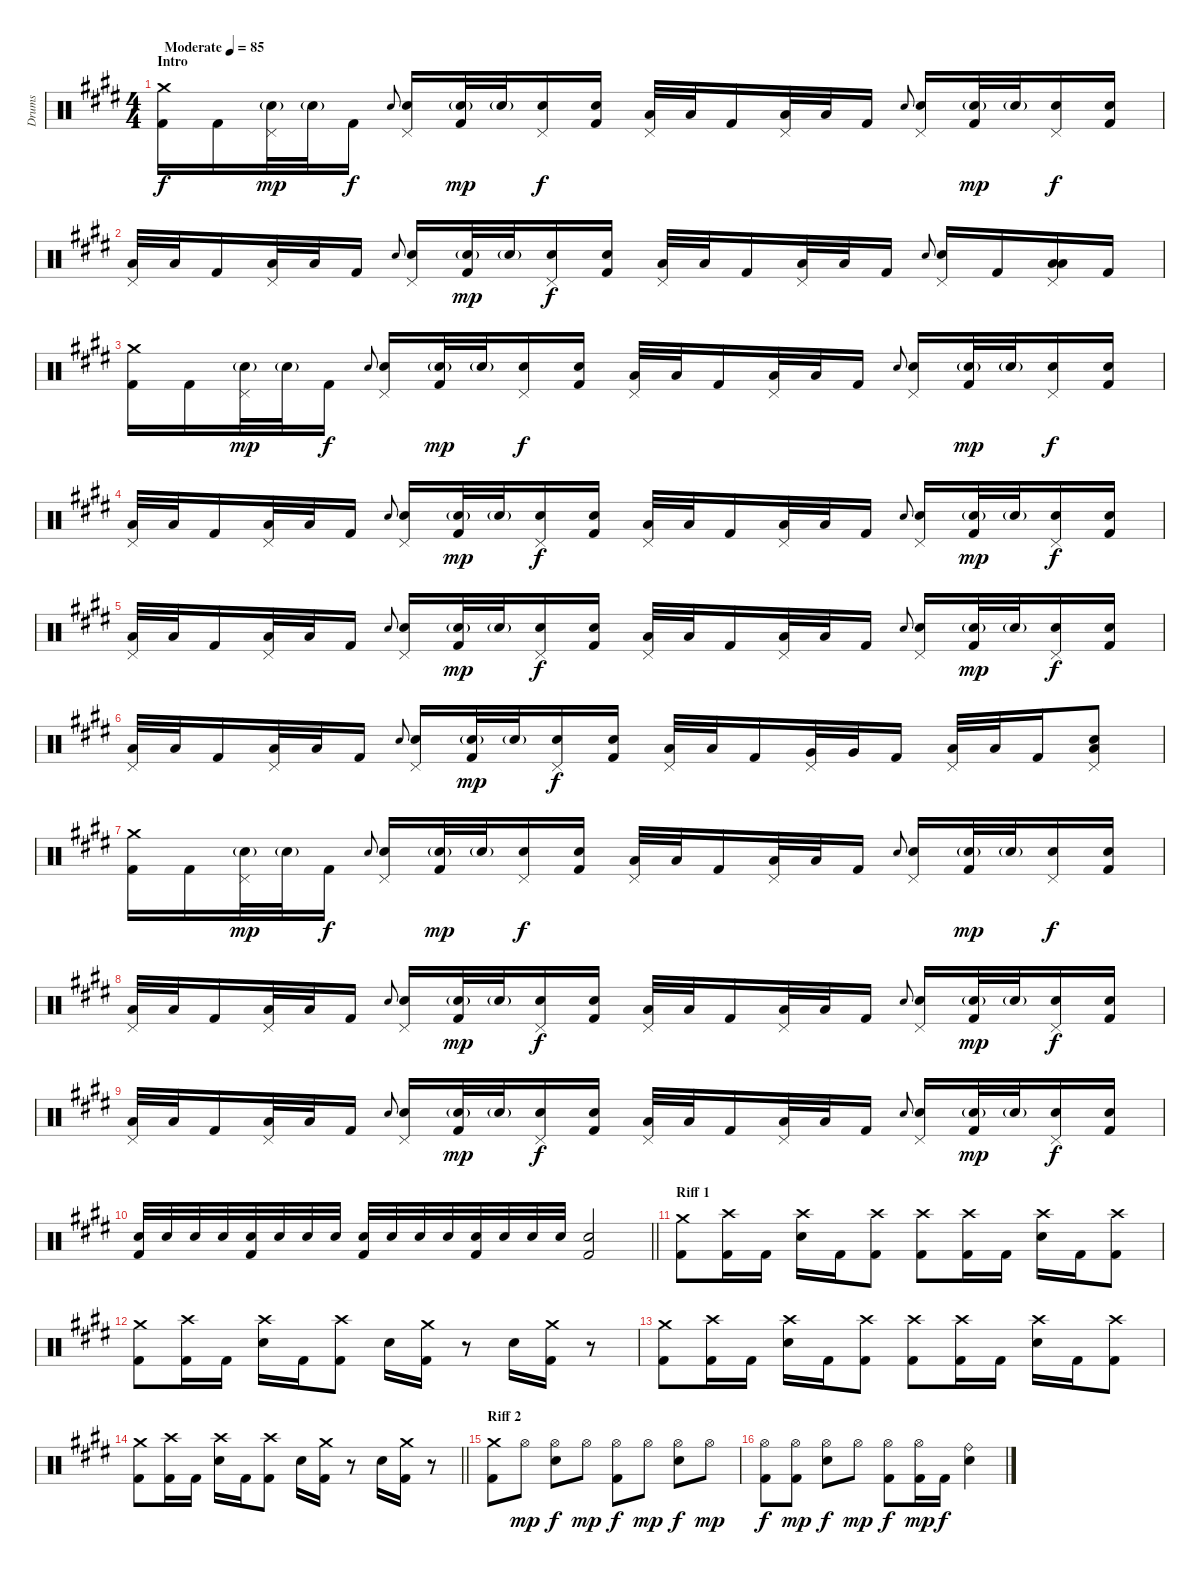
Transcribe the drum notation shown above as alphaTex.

\track ("Drums" "Drums") {instrument percussion}
\staff {score}
\articulation defaults
\ts (4 4)
\section ("" "Intro")
\tempo (85 "Moderate")
\clef neutral
\ks e
("Crash medium (hit)" "Kick (hit) 2").16{dy f} "Kick (hit) 2".16 ("Electric Snare (hit)"{g} "Pedal Hi-Hat (hit)").32{dy mp} "Electric Snare (hit)"{g}.32 "Kick (hit) 2".16{dy f} "Electric Snare (hit)".8{gr onbeat} ("Electric Snare (hit)" "Pedal Hi-Hat (hit)").16 ("Electric Snare (hit)"{g} "Kick (hit) 2").32{dy mp} "Electric Snare (hit)"{g}.32 ("Electric Snare (hit)" "Pedal Hi-Hat (hit)").16{dy f} ("Electric Snare (hit)" "Kick (hit) 2").16 ("Low Tom (hit)" "Pedal Hi-Hat (hit)").32 "Low Tom (hit)".32 "Kick (hit) 2".16 ("Low Floor Tom (hit)" "Pedal Hi-Hat (hit)").32 "Low Floor Tom (hit)".32 "Kick (hit) 2".16 "Electric Snare (hit)".8{gr onbeat} ("Electric Snare (hit)" "Pedal Hi-Hat (hit)").16 ("Electric Snare (hit)"{g} "Kick (hit) 2").32{dy mp} "Electric Snare (hit)"{g}.32 ("Electric Snare (hit)" "Pedal Hi-Hat (hit)").16{dy f} ("Electric Snare (hit)" "Kick (hit) 2").16 |
("Low Tom (hit)" "Pedal Hi-Hat (hit)").32 "Low Tom (hit)".32 "Kick (hit) 2".16 ("Low Floor Tom (hit)" "Pedal Hi-Hat (hit)").32 "Low Floor Tom (hit)".32 "Kick (hit) 2".16 "Electric Snare (hit)".8{gr onbeat} ("Electric Snare (hit)" "Pedal Hi-Hat (hit)").16 ("Electric Snare (hit)"{g} "Kick (hit) 2").32{dy mp} "Electric Snare (hit)"{g}.32 ("Electric Snare (hit)" "Pedal Hi-Hat (hit)").16{dy f} ("Electric Snare (hit)" "Kick (hit) 2").16 ("Low Tom (hit)" "Pedal Hi-Hat (hit)").32 "Low Tom (hit)".32 "Kick (hit) 2".16 ("Low Floor Tom (hit)" "Pedal Hi-Hat (hit)").32 "Low Floor Tom (hit)".32 "Kick (hit) 2".16 "Electric Snare (hit)".8{gr onbeat} ("Electric Snare (hit)" "Pedal Hi-Hat (hit)").16 "Kick (hit) 2".16 ("Low Tom (hit)" "Low Floor Tom (hit)" "Pedal Hi-Hat (hit)").16 "Kick (hit) 2".16 |
("Crash medium (hit)" "Kick (hit) 2").16 "Kick (hit) 2".16 ("Electric Snare (hit)"{g} "Pedal Hi-Hat (hit)").32{dy mp} "Electric Snare (hit)"{g}.32 "Kick (hit) 2".16{dy f} "Electric Snare (hit)".8{gr onbeat} ("Electric Snare (hit)" "Pedal Hi-Hat (hit)").16 ("Electric Snare (hit)"{g} "Kick (hit) 2").32{dy mp} "Electric Snare (hit)"{g}.32 ("Electric Snare (hit)" "Pedal Hi-Hat (hit)").16{dy f} ("Electric Snare (hit)" "Kick (hit) 2").16 ("Low Tom (hit)" "Pedal Hi-Hat (hit)").32 "Low Tom (hit)".32 "Kick (hit) 2".16 ("Low Floor Tom (hit)" "Pedal Hi-Hat (hit)").32 "Low Floor Tom (hit)".32 "Kick (hit) 2".16 "Electric Snare (hit)".8{gr onbeat} ("Electric Snare (hit)" "Pedal Hi-Hat (hit)").16 ("Electric Snare (hit)"{g} "Kick (hit) 2").32{dy mp} "Electric Snare (hit)"{g}.32 ("Electric Snare (hit)" "Pedal Hi-Hat (hit)").16{dy f} ("Electric Snare (hit)" "Kick (hit) 2").16 |
("Low Tom (hit)" "Pedal Hi-Hat (hit)").32 "Low Tom (hit)".32 "Kick (hit) 2".16 ("Low Floor Tom (hit)" "Pedal Hi-Hat (hit)").32 "Low Floor Tom (hit)".32 "Kick (hit) 2".16 "Electric Snare (hit)".8{gr onbeat} ("Electric Snare (hit)" "Pedal Hi-Hat (hit)").16 ("Electric Snare (hit)"{g} "Kick (hit) 2").32{dy mp} "Electric Snare (hit)"{g}.32 ("Electric Snare (hit)" "Pedal Hi-Hat (hit)").16{dy f} ("Electric Snare (hit)" "Kick (hit) 2").16 ("Low Tom (hit)" "Pedal Hi-Hat (hit)").32 "Low Tom (hit)".32 "Kick (hit) 2".16 ("Low Floor Tom (hit)" "Pedal Hi-Hat (hit)").32 "Low Floor Tom (hit)".32 "Kick (hit) 2".16 "Electric Snare (hit)".8{gr onbeat} ("Electric Snare (hit)" "Pedal Hi-Hat (hit)").16 ("Electric Snare (hit)"{g} "Kick (hit) 2").32{dy mp} "Electric Snare (hit)"{g}.32 ("Electric Snare (hit)" "Pedal Hi-Hat (hit)").16{dy f} ("Electric Snare (hit)" "Kick (hit) 2").16 |
("Low Tom (hit)" "Pedal Hi-Hat (hit)").32 "Low Tom (hit)".32 "Kick (hit) 2".16 ("Low Floor Tom (hit)" "Pedal Hi-Hat (hit)").32 "Low Floor Tom (hit)".32 "Kick (hit) 2".16 "Electric Snare (hit)".8{gr onbeat} ("Electric Snare (hit)" "Pedal Hi-Hat (hit)").16 ("Electric Snare (hit)"{g} "Kick (hit) 2").32{dy mp} "Electric Snare (hit)"{g}.32 ("Electric Snare (hit)" "Pedal Hi-Hat (hit)").16{dy f} ("Electric Snare (hit)" "Kick (hit) 2").16 ("Low Tom (hit)" "Pedal Hi-Hat (hit)").32 "Low Tom (hit)".32 "Kick (hit) 2".16 ("Low Floor Tom (hit)" "Pedal Hi-Hat (hit)").32 "Low Floor Tom (hit)".32 "Kick (hit) 2".16 "Electric Snare (hit)".8{gr onbeat} ("Electric Snare (hit)" "Pedal Hi-Hat (hit)").16 ("Electric Snare (hit)"{g} "Kick (hit) 2").32{dy mp} "Electric Snare (hit)"{g}.32 ("Electric Snare (hit)" "Pedal Hi-Hat (hit)").16{dy f} ("Electric Snare (hit)" "Kick (hit) 2").16 |
("Low Tom (hit)" "Pedal Hi-Hat (hit)").32 "Low Tom (hit)".32 "Kick (hit) 2".16 ("Low Floor Tom (hit)" "Pedal Hi-Hat (hit)").32 "Low Floor Tom (hit)".32 "Kick (hit) 2".16 "Electric Snare (hit)".8{gr onbeat} ("Electric Snare (hit)" "Pedal Hi-Hat (hit)").16 ("Electric Snare (hit)"{g} "Kick (hit) 2").32{dy mp} "Electric Snare (hit)"{g}.32 ("Electric Snare (hit)" "Pedal Hi-Hat (hit)").16{dy f} ("Electric Snare (hit)" "Kick (hit) 2").16 ("Low Tom (hit)" "Pedal Hi-Hat (hit)").32 "Low Tom (hit)".32 "Kick (hit) 2".16 ("Very Low Tom (hit)" "Pedal Hi-Hat (hit)").32 "Very Low Tom (hit)".32 "Kick (hit) 2".16 ("Low Floor Tom (hit)" "Pedal Hi-Hat (hit)").32 "Low Floor Tom (hit)".32 "Kick (hit) 2".16 ("Electric Snare (hit)" "Low Floor Tom (hit)" "Pedal Hi-Hat (hit)").8 |
("Crash medium (hit)" "Kick (hit) 2").16 "Kick (hit) 2".16 ("Electric Snare (hit)"{g} "Pedal Hi-Hat (hit)").32{dy mp} "Electric Snare (hit)"{g}.32 "Kick (hit) 2".16{dy f} "Electric Snare (hit)".8{gr onbeat} ("Electric Snare (hit)" "Pedal Hi-Hat (hit)").16 ("Electric Snare (hit)"{g} "Kick (hit) 2").32{dy mp} "Electric Snare (hit)"{g}.32 ("Electric Snare (hit)" "Pedal Hi-Hat (hit)").16{dy f} ("Electric Snare (hit)" "Kick (hit) 2").16 ("Low Tom (hit)" "Pedal Hi-Hat (hit)").32 "Low Tom (hit)".32 "Kick (hit) 2".16 ("Low Floor Tom (hit)" "Pedal Hi-Hat (hit)").32 "Low Floor Tom (hit)".32 "Kick (hit) 2".16 "Electric Snare (hit)".8{gr onbeat} ("Electric Snare (hit)" "Pedal Hi-Hat (hit)").16 ("Electric Snare (hit)"{g} "Kick (hit) 2").32{dy mp} "Electric Snare (hit)"{g}.32 ("Electric Snare (hit)" "Pedal Hi-Hat (hit)").16{dy f} ("Electric Snare (hit)" "Kick (hit) 2").16 |
("Low Tom (hit)" "Pedal Hi-Hat (hit)").32 "Low Tom (hit)".32 "Kick (hit) 2".16 ("Low Floor Tom (hit)" "Pedal Hi-Hat (hit)").32 "Low Floor Tom (hit)".32 "Kick (hit) 2".16 "Electric Snare (hit)".8{gr onbeat} ("Electric Snare (hit)" "Pedal Hi-Hat (hit)").16 ("Electric Snare (hit)"{g} "Kick (hit) 2").32{dy mp} "Electric Snare (hit)"{g}.32 ("Electric Snare (hit)" "Pedal Hi-Hat (hit)").16{dy f} ("Electric Snare (hit)" "Kick (hit) 2").16 ("Low Tom (hit)" "Pedal Hi-Hat (hit)").32 "Low Tom (hit)".32 "Kick (hit) 2".16 ("Low Floor Tom (hit)" "Pedal Hi-Hat (hit)").32 "Low Floor Tom (hit)".32 "Kick (hit) 2".16 "Electric Snare (hit)".8{gr onbeat} ("Electric Snare (hit)" "Pedal Hi-Hat (hit)").16 ("Electric Snare (hit)"{g} "Kick (hit) 2").32{dy mp} "Electric Snare (hit)"{g}.32 ("Electric Snare (hit)" "Pedal Hi-Hat (hit)").16{dy f} ("Electric Snare (hit)" "Kick (hit) 2").16 |
("Low Tom (hit)" "Pedal Hi-Hat (hit)").32 "Low Tom (hit)".32 "Kick (hit) 2".16 ("Low Floor Tom (hit)" "Pedal Hi-Hat (hit)").32 "Low Floor Tom (hit)".32 "Kick (hit) 2".16 "Electric Snare (hit)".8{gr onbeat} ("Electric Snare (hit)" "Pedal Hi-Hat (hit)").16 ("Electric Snare (hit)"{g} "Kick (hit) 2").32{dy mp} "Electric Snare (hit)"{g}.32 ("Electric Snare (hit)" "Pedal Hi-Hat (hit)").16{dy f} ("Electric Snare (hit)" "Kick (hit) 2").16 ("Low Tom (hit)" "Pedal Hi-Hat (hit)").32 "Low Tom (hit)".32 "Kick (hit) 2".16 ("Low Floor Tom (hit)" "Pedal Hi-Hat (hit)").32 "Low Floor Tom (hit)".32 "Kick (hit) 2".16 "Electric Snare (hit)".8{gr onbeat} ("Electric Snare (hit)" "Pedal Hi-Hat (hit)").16 ("Electric Snare (hit)"{g} "Kick (hit) 2").32{dy mp} "Electric Snare (hit)"{g}.32 ("Electric Snare (hit)" "Pedal Hi-Hat (hit)").16{dy f} ("Electric Snare (hit)" "Kick (hit) 2").16 |
\barLineRight lightlight
("Electric Snare (hit)" "Kick (hit) 2").32 "Electric Snare (hit)".32 "Electric Snare (hit)".32 "Electric Snare (hit)".32 ("Electric Snare (hit)" "Kick (hit) 2").32 "Electric Snare (hit)".32 "Electric Snare (hit)".32 "Electric Snare (hit)".32 ("Electric Snare (hit)" "Kick (hit) 2").32 "Electric Snare (hit)".32 "Electric Snare (hit)".32 "Electric Snare (hit)".32 ("Electric Snare (hit)" "Kick (hit) 2").32 "Electric Snare (hit)".32 "Electric Snare (hit)".32 "Electric Snare (hit)".32 ("Electric Snare (hit)" "Kick (hit) 2").2 |
\section ("" "Riff 1")
("Kick (hit) 2" "Crash medium (hit)").8 ("Kick (hit) 2" "Crash high (hit)").16 "Kick (hit) 2".16 ("Electric Snare (hit)" "Crash high (hit)").16 "Kick (hit) 2".16 ("Kick (hit) 2" "Crash high (hit)").8 ("Kick (hit) 2" "Crash high (hit)").8 ("Kick (hit) 2" "Crash high (hit)").16 "Kick (hit) 2".16 ("Electric Snare (hit)" "Crash high (hit)").16 "Kick (hit) 2".16 ("Kick (hit) 2" "Crash high (hit)").8 |
("Kick (hit) 2" "Crash medium (hit)").8 ("Kick (hit) 2" "Crash high (hit)").16 "Kick (hit) 2".16 ("Electric Snare (hit)" "Crash high (hit)").16 "Kick (hit) 2".16 ("Kick (hit) 2" "Crash high (hit)").8 "Electric Snare (hit)".16 ("Kick (hit) 2" "Crash medium (hit)").16 r.8 "Electric Snare (hit)".16 ("Kick (hit) 2" "Crash medium (hit)").16 r.8 |
("Kick (hit) 2" "Crash medium (hit)").8 ("Kick (hit) 2" "Crash high (hit)").16 "Kick (hit) 2".16 ("Electric Snare (hit)" "Crash high (hit)").16 "Kick (hit) 2".16 ("Kick (hit) 2" "Crash high (hit)").8 ("Kick (hit) 2" "Crash high (hit)").8 ("Kick (hit) 2" "Crash high (hit)").16 "Kick (hit) 2".16 ("Electric Snare (hit)" "Crash high (hit)").16 "Kick (hit) 2".16 ("Kick (hit) 2" "Crash high (hit)").8 |
\barLineRight lightlight
("Kick (hit) 2" "Crash medium (hit)").8 ("Kick (hit) 2" "Crash high (hit)").16 "Kick (hit) 2".16 ("Electric Snare (hit)" "Crash high (hit)").16 "Kick (hit) 2".16 ("Kick (hit) 2" "Crash high (hit)").8 "Electric Snare (hit)".16 ("Kick (hit) 2" "Crash medium (hit)").16 r.8 "Electric Snare (hit)".16 ("Kick (hit) 2" "Crash medium (hit)").16 r.8 |
\section ("" "Riff 2")
("Kick (hit) 2" "Crash medium (hit)").8 "Hi-Hat (open)".8{dy mp} ("Hi-Hat (open)" "Electric Snare (hit)").8{dy f} "Hi-Hat (open)".8{dy mp} ("Hi-Hat (open)" "Kick (hit) 2").8{dy f} "Hi-Hat (open)".8{dy mp} ("Hi-Hat (open)" "Electric Snare (hit)").8{dy f} "Hi-Hat (open)".8{dy mp} |
("Hi-Hat (open)" "Kick (hit) 2").8{dy f} ("Hi-Hat (open)" "Kick (hit) 2").8{dy mp} ("Hi-Hat (open)" "Electric Snare (hit)").8{dy f} "Hi-Hat (open)".8{dy mp} ("Hi-Hat (open)" "Kick (hit) 2").8{dy f} ("Hi-Hat (open)" "Kick (hit) 2").16{dy mp} "Kick (hit) 2".16{dy f} ("Electric Snare (hit)" "Ride (bell)").4
